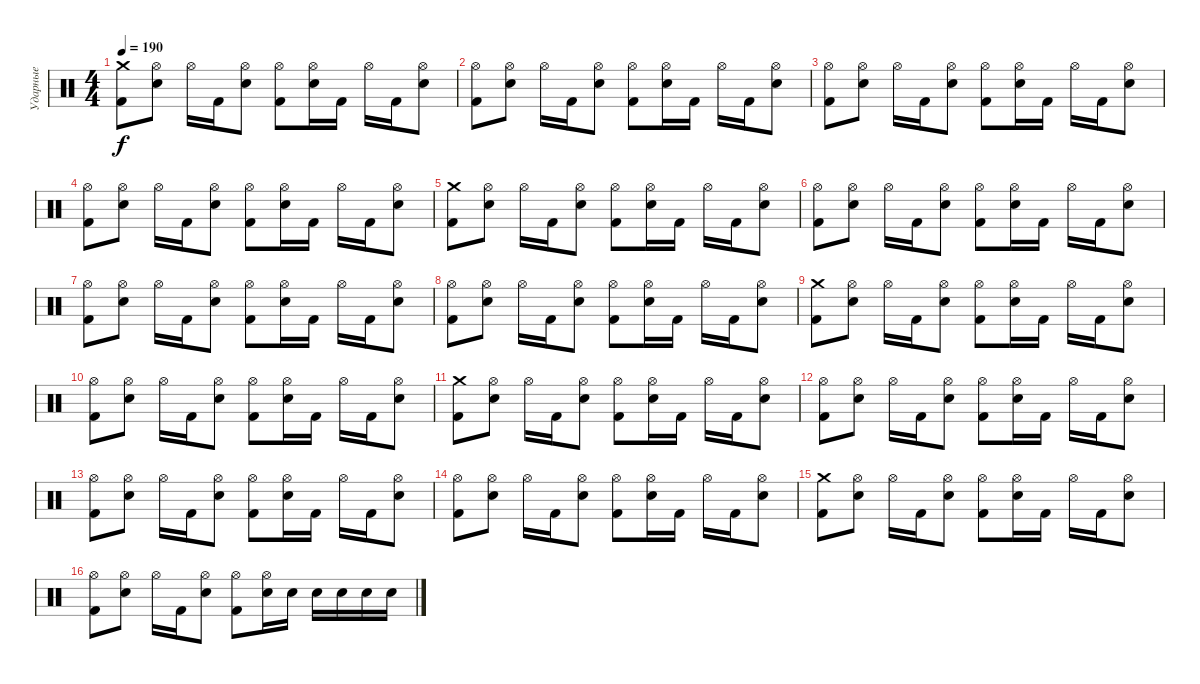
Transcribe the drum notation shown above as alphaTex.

\track ("Ударные" "Ударные") {instrument percussion}
\staff {score}
\articulation defaults
\ts (4 4)
\tempo 190
\clef neutral
\ks c
("Kick (hit) 2" "Crash medium (hit)").8{dy f} ("Electric Snare (hit)" "Hi-Hat (open)").8 "Hi-Hat (open)".16 "Kick (hit) 2".16 ("Electric Snare (hit)" "Hi-Hat (open)").8 ("Kick (hit) 2" "Hi-Hat (open)").8 ("Electric Snare (hit)" "Hi-Hat (open)").16 "Kick (hit) 2".16 "Hi-Hat (open)".16 "Kick (hit) 2".16 ("Electric Snare (hit)" "Hi-Hat (open)").8 |
("Kick (hit) 2" "Hi-Hat (open)").8 ("Electric Snare (hit)" "Hi-Hat (open)").8 "Hi-Hat (open)".16 "Kick (hit) 2".16 ("Electric Snare (hit)" "Hi-Hat (open)").8 ("Kick (hit) 2" "Hi-Hat (open)").8 ("Electric Snare (hit)" "Hi-Hat (open)").16 "Kick (hit) 2".16 "Hi-Hat (open)".16 "Kick (hit) 2".16 ("Electric Snare (hit)" "Hi-Hat (open)").8 |
("Kick (hit) 2" "Hi-Hat (open)").8 ("Electric Snare (hit)" "Hi-Hat (open)").8 "Hi-Hat (open)".16 "Kick (hit) 2".16 ("Electric Snare (hit)" "Hi-Hat (open)").8 ("Kick (hit) 2" "Hi-Hat (open)").8 ("Electric Snare (hit)" "Hi-Hat (open)").16 "Kick (hit) 2".16 "Hi-Hat (open)".16 "Kick (hit) 2".16 ("Electric Snare (hit)" "Hi-Hat (open)").8 |
("Kick (hit) 2" "Hi-Hat (open)").8 ("Electric Snare (hit)" "Hi-Hat (open)").8 "Hi-Hat (open)".16 "Kick (hit) 2".16 ("Electric Snare (hit)" "Hi-Hat (open)").8 ("Kick (hit) 2" "Hi-Hat (open)").8 ("Electric Snare (hit)" "Hi-Hat (open)").16 "Kick (hit) 2".16 "Hi-Hat (open)".16 "Kick (hit) 2".16 ("Electric Snare (hit)" "Hi-Hat (open)").8 |
("Kick (hit) 2" "Crash medium (hit)").8 ("Electric Snare (hit)" "Hi-Hat (open)").8 "Hi-Hat (open)".16 "Kick (hit) 2".16 ("Electric Snare (hit)" "Hi-Hat (open)").8 ("Kick (hit) 2" "Hi-Hat (open)").8 ("Electric Snare (hit)" "Hi-Hat (open)").16 "Kick (hit) 2".16 "Hi-Hat (open)".16 "Kick (hit) 2".16 ("Electric Snare (hit)" "Hi-Hat (open)").8 |
("Kick (hit) 2" "Hi-Hat (open)").8 ("Electric Snare (hit)" "Hi-Hat (open)").8 "Hi-Hat (open)".16 "Kick (hit) 2".16 ("Electric Snare (hit)" "Hi-Hat (open)").8 ("Kick (hit) 2" "Hi-Hat (open)").8 ("Electric Snare (hit)" "Hi-Hat (open)").16 "Kick (hit) 2".16 "Hi-Hat (open)".16 "Kick (hit) 2".16 ("Electric Snare (hit)" "Hi-Hat (open)").8 |
("Kick (hit) 2" "Hi-Hat (open)").8 ("Electric Snare (hit)" "Hi-Hat (open)").8 "Hi-Hat (open)".16 "Kick (hit) 2".16 ("Electric Snare (hit)" "Hi-Hat (open)").8 ("Kick (hit) 2" "Hi-Hat (open)").8 ("Electric Snare (hit)" "Hi-Hat (open)").16 "Kick (hit) 2".16 "Hi-Hat (open)".16 "Kick (hit) 2".16 ("Electric Snare (hit)" "Hi-Hat (open)").8 |
("Kick (hit) 2" "Hi-Hat (open)").8 ("Electric Snare (hit)" "Hi-Hat (open)").8 "Hi-Hat (open)".16 "Kick (hit) 2".16 ("Electric Snare (hit)" "Hi-Hat (open)").8 ("Kick (hit) 2" "Hi-Hat (open)").8 ("Electric Snare (hit)" "Hi-Hat (open)").16 "Kick (hit) 2".16 "Hi-Hat (open)".16 "Kick (hit) 2".16 ("Electric Snare (hit)" "Hi-Hat (open)").8 |
("Kick (hit) 2" "Crash medium (hit)").8 ("Electric Snare (hit)" "Hi-Hat (open)").8 "Hi-Hat (open)".16 "Kick (hit) 2".16 ("Electric Snare (hit)" "Hi-Hat (open)").8 ("Kick (hit) 2" "Hi-Hat (open)").8 ("Electric Snare (hit)" "Hi-Hat (open)").16 "Kick (hit) 2".16 "Hi-Hat (open)".16 "Kick (hit) 2".16 ("Electric Snare (hit)" "Hi-Hat (open)").8 |
("Kick (hit) 2" "Hi-Hat (open)").8 ("Electric Snare (hit)" "Hi-Hat (open)").8 "Hi-Hat (open)".16 "Kick (hit) 2".16 ("Electric Snare (hit)" "Hi-Hat (open)").8 ("Kick (hit) 2" "Hi-Hat (open)").8 ("Electric Snare (hit)" "Hi-Hat (open)").16 "Kick (hit) 2".16 "Hi-Hat (open)".16 "Kick (hit) 2".16 ("Electric Snare (hit)" "Hi-Hat (open)").8 |
("Kick (hit) 2" "Crash medium (hit)").8 ("Electric Snare (hit)" "Hi-Hat (open)").8 "Hi-Hat (open)".16 "Kick (hit) 2".16 ("Electric Snare (hit)" "Hi-Hat (open)").8 ("Kick (hit) 2" "Hi-Hat (open)").8 ("Electric Snare (hit)" "Hi-Hat (open)").16 "Kick (hit) 2".16 "Hi-Hat (open)".16 "Kick (hit) 2".16 ("Electric Snare (hit)" "Hi-Hat (open)").8 |
("Kick (hit) 2" "Hi-Hat (open)").8 ("Electric Snare (hit)" "Hi-Hat (open)").8 "Hi-Hat (open)".16 "Kick (hit) 2".16 ("Electric Snare (hit)" "Hi-Hat (open)").8 ("Kick (hit) 2" "Hi-Hat (open)").8 ("Electric Snare (hit)" "Hi-Hat (open)").16 "Kick (hit) 2".16 "Hi-Hat (open)".16 "Kick (hit) 2".16 ("Electric Snare (hit)" "Hi-Hat (open)").8 |
("Kick (hit) 2" "Hi-Hat (open)").8 ("Electric Snare (hit)" "Hi-Hat (open)").8 "Hi-Hat (open)".16 "Kick (hit) 2".16 ("Electric Snare (hit)" "Hi-Hat (open)").8 ("Kick (hit) 2" "Hi-Hat (open)").8 ("Electric Snare (hit)" "Hi-Hat (open)").16 "Kick (hit) 2".16 "Hi-Hat (open)".16 "Kick (hit) 2".16 ("Electric Snare (hit)" "Hi-Hat (open)").8 |
("Kick (hit) 2" "Hi-Hat (open)").8 ("Electric Snare (hit)" "Hi-Hat (open)").8 "Hi-Hat (open)".16 "Kick (hit) 2".16 ("Electric Snare (hit)" "Hi-Hat (open)").8 ("Kick (hit) 2" "Hi-Hat (open)").8 ("Electric Snare (hit)" "Hi-Hat (open)").16 "Kick (hit) 2".16 "Hi-Hat (open)".16 "Kick (hit) 2".16 ("Electric Snare (hit)" "Hi-Hat (open)").8 |
("Kick (hit) 2" "Crash medium (hit)").8 ("Electric Snare (hit)" "Hi-Hat (open)").8 "Hi-Hat (open)".16 "Kick (hit) 2".16 ("Electric Snare (hit)" "Hi-Hat (open)").8 ("Kick (hit) 2" "Hi-Hat (open)").8 ("Electric Snare (hit)" "Hi-Hat (open)").16 "Kick (hit) 2".16 "Hi-Hat (open)".16 "Kick (hit) 2".16 ("Electric Snare (hit)" "Hi-Hat (open)").8 |
("Kick (hit) 2" "Hi-Hat (open)").8 ("Electric Snare (hit)" "Hi-Hat (open)").8 "Hi-Hat (open)".16 "Kick (hit) 2".16 ("Electric Snare (hit)" "Hi-Hat (open)").8 ("Kick (hit) 2" "Hi-Hat (open)").8 ("Electric Snare (hit)" "Hi-Hat (open)").16 "Electric Snare (hit)".16 "Electric Snare (hit)".16 "Electric Snare (hit)".16 "Electric Snare (hit)".16 "Electric Snare (hit)".16
